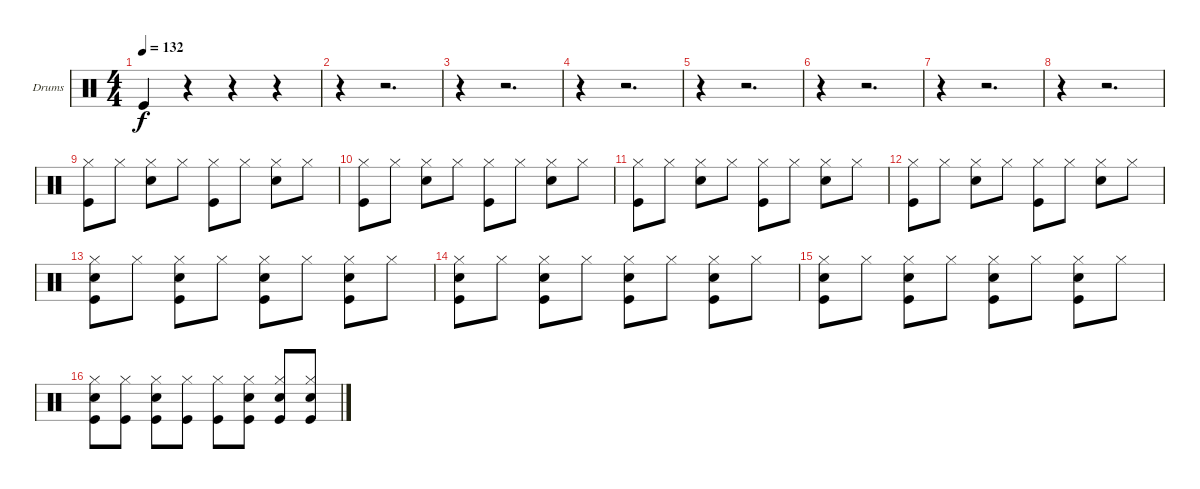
\defaultSystemsLayout 4
\bracketExtendMode groupsimilarinstruments
\firstSystemTrackNameOrientation horizontal
\otherSystemsTrackNameOrientation horizontal
\track ("Fab Moretti" "Drums") {instrument percussion}
\staff {score}
\articulation defaults
\ts (4 4)
\tempo 132
\clef neutral
\ks c "Kick (hit)".4{dy f}
r.4 r.4 r.4 |
r.4 r.2{d} |
r.4 r.2{d} |
r.4 r.2{d} |
r.4 r.2{d} |
r.4 r.2{d} |
r.4 r.2{d} |
r.4 r.2{d} |
("Hi-Hat (closed)" "Kick (hit)").8 "Hi-Hat (closed)".8 ("Hi-Hat (closed)" "Snare (hit) 2").8 "Hi-Hat (closed)".8 ("Hi-Hat (closed)" "Kick (hit)").8 "Hi-Hat (closed)".8 ("Hi-Hat (closed)" "Snare (hit) 2").8 "Hi-Hat (closed)".8 |
("Hi-Hat (closed)" "Kick (hit)").8 "Hi-Hat (closed)".8 ("Hi-Hat (closed)" "Snare (hit) 2").8 "Hi-Hat (closed)".8 ("Hi-Hat (closed)" "Kick (hit)").8 "Hi-Hat (closed)".8 ("Hi-Hat (closed)" "Snare (hit) 2").8 "Hi-Hat (closed)".8 |
("Hi-Hat (closed)" "Kick (hit)").8 "Hi-Hat (closed)".8 ("Hi-Hat (closed)" "Snare (hit) 2").8 "Hi-Hat (closed)".8 ("Hi-Hat (closed)" "Kick (hit)").8 "Hi-Hat (closed)".8 ("Hi-Hat (closed)" "Snare (hit) 2").8 "Hi-Hat (closed)".8 |
("Hi-Hat (closed)" "Kick (hit)").8 "Hi-Hat (closed)".8 ("Hi-Hat (closed)" "Snare (hit) 2").8 "Hi-Hat (closed)".8 ("Hi-Hat (closed)" "Kick (hit)").8 "Hi-Hat (closed)".8 ("Hi-Hat (closed)" "Snare (hit) 2").8 "Hi-Hat (closed)".8 |
("Hi-Hat (closed)" "Snare (hit) 2" "Kick (hit)").8 "Hi-Hat (closed)".8 ("Hi-Hat (closed)" "Snare (hit) 2" "Kick (hit)").8 "Hi-Hat (closed)".8 ("Hi-Hat (closed)" "Snare (hit) 2" "Kick (hit)").8 "Hi-Hat (closed)".8 ("Hi-Hat (closed)" "Snare (hit) 2" "Kick (hit)").8 "Hi-Hat (closed)".8 |
("Hi-Hat (closed)" "Snare (hit) 2" "Kick (hit)").8 "Hi-Hat (closed)".8 ("Hi-Hat (closed)" "Snare (hit) 2" "Kick (hit)").8 "Hi-Hat (closed)".8 ("Hi-Hat (closed)" "Snare (hit) 2" "Kick (hit)").8 "Hi-Hat (closed)".8 ("Hi-Hat (closed)" "Snare (hit) 2" "Kick (hit)").8 "Hi-Hat (closed)".8 |
("Hi-Hat (closed)" "Snare (hit) 2" "Kick (hit)").8 "Hi-Hat (closed)".8 ("Hi-Hat (closed)" "Snare (hit) 2" "Kick (hit)").8 "Hi-Hat (closed)".8 ("Hi-Hat (closed)" "Snare (hit) 2" "Kick (hit)").8 "Hi-Hat (closed)".8 ("Hi-Hat (closed)" "Snare (hit) 2" "Kick (hit)").8 "Hi-Hat (closed)".8 |
("Hi-Hat (closed)" "Snare (hit) 2" "Kick (hit)").8 ("Hi-Hat (closed)" "Kick (hit)").8 ("Hi-Hat (closed)" "Snare (hit) 2" "Kick (hit)").8 ("Hi-Hat (closed)" "Kick (hit)").8 ("Hi-Hat (closed)" "Kick (hit)").8 ("Hi-Hat (closed)" "Snare (hit) 2" "Kick (hit)").8 ("Hi-Hat (closed)" "Snare (hit) 2" "Kick (hit)").8 ("Hi-Hat (closed)" "Snare (hit) 2" "Kick (hit)").8
